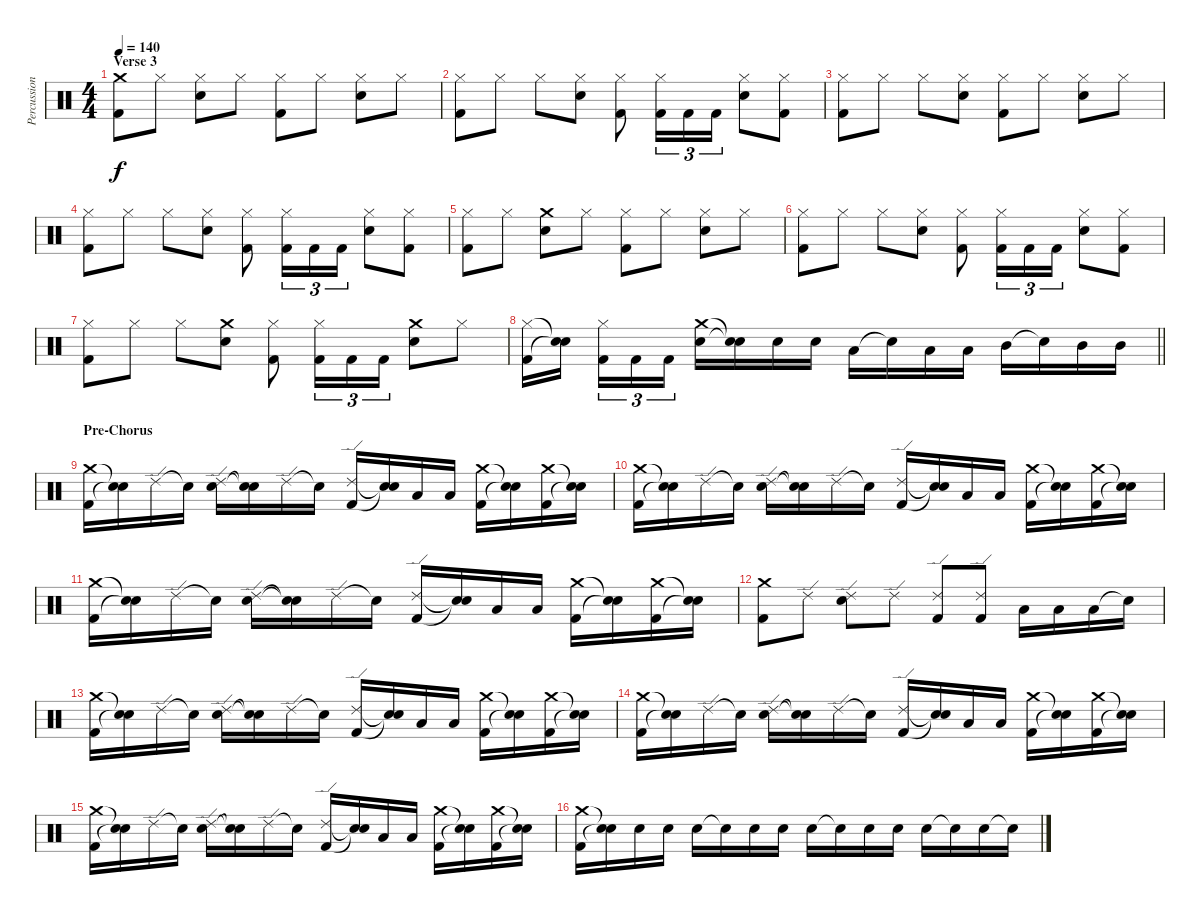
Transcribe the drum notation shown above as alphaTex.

\track ("Percussion" "Percussion") {instrument percussion}
\staff {score}
\articulation defaults
\ts (4 4)
\section ("" "Verse 3")
\tempo 140
\clef neutral
\ks c
("Crash medium (hit)" "Kick (hit) 2").8{dy f} "Hi-Hat (closed)".8 ("Hi-Hat (closed)" "Snare (hit) 2").8 "Hi-Hat (closed)".8 ("Hi-Hat (closed)" "Kick (hit) 2").8 "Hi-Hat (closed)".8 ("Hi-Hat (closed)" "Snare (hit) 2").8 "Hi-Hat (closed)".8 |
("Hi-Hat (closed)" "Kick (hit) 2").8 "Hi-Hat (closed)".8 "Hi-Hat (closed)".8 ("Hi-Hat (closed)" "Snare (hit) 2").8 ("Hi-Hat (closed)" "Kick (hit) 2").8 ("Hi-Hat (closed)" "Kick (hit) 2").16{tu (3 2)} "Kick (hit) 2".16{tu (3 2)} "Kick (hit) 2".16{tu (3 2)} ("Hi-Hat (closed)" "Snare (hit) 2").8 ("Hi-Hat (closed)" "Kick (hit) 2").8 |
("Hi-Hat (closed)" "Kick (hit) 2").8 "Hi-Hat (closed)".8 "Hi-Hat (closed)".8 ("Hi-Hat (closed)" "Snare (hit) 2").8 ("Hi-Hat (closed)" "Kick (hit) 2").8 "Hi-Hat (closed)".8 ("Hi-Hat (closed)" "Snare (hit) 2").8 "Hi-Hat (closed)".8 |
("Hi-Hat (closed)" "Kick (hit) 2").8 "Hi-Hat (closed)".8 "Hi-Hat (closed)".8 ("Hi-Hat (closed)" "Snare (hit) 2").8 ("Hi-Hat (closed)" "Kick (hit) 2").8 ("Hi-Hat (closed)" "Kick (hit) 2").16{tu (3 2)} "Kick (hit) 2".16{tu (3 2)} "Kick (hit) 2".16{tu (3 2)} ("Hi-Hat (closed)" "Snare (hit) 2").8 ("Hi-Hat (closed)" "Kick (hit) 2").8 |
("Hi-Hat (closed)" "Kick (hit) 2").8 "Hi-Hat (closed)".8 ("Crash medium (hit)" "Snare (hit) 2").8 "Hi-Hat (closed)".8 ("Hi-Hat (closed)" "Kick (hit) 2").8 "Hi-Hat (closed)".8 ("Hi-Hat (closed)" "Snare (hit) 2").8 "Hi-Hat (closed)".8 |
("Hi-Hat (closed)" "Kick (hit) 2").8 "Hi-Hat (closed)".8 "Hi-Hat (closed)".8 ("Hi-Hat (closed)" "Snare (hit) 2").8 ("Hi-Hat (closed)" "Kick (hit) 2").8 ("Hi-Hat (closed)" "Kick (hit) 2").16{tu (3 2)} "Kick (hit) 2".16{tu (3 2)} "Kick (hit) 2".16{tu (3 2)} ("Hi-Hat (closed)" "Snare (hit) 2").8 ("Hi-Hat (closed)" "Kick (hit) 2").8 |
("Hi-Hat (closed)" "Kick (hit) 2").8 "Hi-Hat (closed)".8 "Hi-Hat (closed)".8 ("Crash medium (hit)" "Snare (hit) 2").8 ("Hi-Hat (closed)" "Kick (hit) 2").8 ("Hi-Hat (closed)" "Kick (hit) 2").16{tu (3 2)} "Kick (hit) 2".16{tu (3 2)} "Kick (hit) 2".16{tu (3 2)} ("Crash medium (hit)" "Snare (hit) 2").8 "Hi-Hat (closed)".8 |
\barLineRight lightlight
("Hi-Hat (closed)" "Kick (hit) 2").16 ("Snare (hit)"{t} "Snare (hit)"{t}).16{beam splitsecondary} ("Hi-Hat (closed)" "Kick (hit) 2").16{tu (3 2)} "Kick (hit) 2".16{tu (3 2)} "Kick (hit) 2".16{tu (3 2)} ("Crash medium (hit)" "Snare (hit) 2").16 ("Snare (hit)"{t} "Snare (hit)"{t}).16 "Snare (hit) 2".16 "Snare (hit) 2".16 "Low Tom (hit)".16 "Snare (hit)"{t}.16 "Low Tom (hit)".16 "Low Tom (hit)".16 "Mid Tom (hit)".16 "Snare (hit)"{t}.16 "Mid Tom (hit)".16 "Mid Tom (hit)".16 |
\section ("" "Pre-Chorus")
("Crash medium (hit)" "Kick (hit) 2").16 ("Snare (hit)"{t} "Snare (hit)"{t}).16 "Ride (edge) 2".16 "Snare (hit)"{t}.16 ("Ride (edge) 2" "Snare (hit) 2").16 ("Snare (hit)"{t} "Snare (hit)"{t}).16 "Ride (edge) 2".16 "Snare (hit)"{t}.16 ("Ride (edge) 2" "Kick (hit) 2").16 ("Snare (hit)"{t} "Snare (hit)"{t}).16 "Low Tom (hit)".16 "Low Tom (hit)".16 ("Crash medium (hit)" "Kick (hit) 2").16 ("Snare (hit)"{t} "Snare (hit)"{t}).16 ("Crash medium (hit)" "Kick (hit) 2").16 ("Snare (hit)"{t} "Snare (hit)"{t}).16 |
("Crash medium (hit)" "Kick (hit) 2").16 ("Snare (hit)"{t} "Snare (hit)"{t}).16 "Ride (edge) 2".16 "Snare (hit)"{t}.16 ("Ride (edge) 2" "Snare (hit) 2").16 ("Snare (hit)"{t} "Snare (hit)"{t}).16 "Ride (edge) 2".16 "Snare (hit)"{t}.16 ("Ride (edge) 2" "Kick (hit) 2").16 ("Snare (hit)"{t} "Snare (hit)"{t}).16 "Low Tom (hit)".16 "Low Tom (hit)".16 ("Crash medium (hit)" "Kick (hit) 2").16 ("Snare (hit)"{t} "Snare (hit)"{t}).16 ("Crash medium (hit)" "Kick (hit) 2").16 ("Snare (hit)"{t} "Snare (hit)"{t}).16 |
("Crash medium (hit)" "Kick (hit) 2").16 ("Snare (hit)"{t} "Snare (hit)"{t}).16 "Ride (edge) 2".16 "Snare (hit)"{t}.16 ("Ride (edge) 2" "Snare (hit) 2").16 ("Snare (hit)"{t} "Snare (hit)"{t}).16 "Ride (edge) 2".16 "Snare (hit)"{t}.16 ("Ride (edge) 2" "Kick (hit) 2").16 ("Snare (hit)"{t} "Snare (hit)"{t}).16 "Low Tom (hit)".16 "Low Tom (hit)".16 ("Crash medium (hit)" "Kick (hit) 2").16 ("Snare (hit)"{t} "Snare (hit)"{t}).16 ("Crash medium (hit)" "Kick (hit) 2").16 ("Snare (hit)"{t} "Snare (hit)"{t}).16 |
("Crash medium (hit)" "Kick (hit) 2").8 "Ride (edge) 2".8 ("Ride (edge) 2" "Snare (hit) 2").8 "Ride (edge) 2".8 ("Ride (edge) 2" "Kick (hit) 2").8 ("Ride (edge) 2" "Kick (hit) 2").8 "Low Tom (hit)".16 "Low Tom (hit)".16 "Low Tom (hit)".16 "Snare (hit)"{t}.16 |
("Crash medium (hit)" "Kick (hit) 2").16 ("Snare (hit)"{t} "Snare (hit)"{t}).16 "Ride (edge) 2".16 "Snare (hit)"{t}.16 ("Ride (edge) 2" "Snare (hit) 2").16 ("Snare (hit)"{t} "Snare (hit)"{t}).16 "Ride (edge) 2".16 "Snare (hit)"{t}.16 ("Ride (edge) 2" "Kick (hit) 2").16 ("Snare (hit)"{t} "Snare (hit)"{t}).16 "Low Tom (hit)".16 "Low Tom (hit)".16 ("Crash medium (hit)" "Kick (hit) 2").16 ("Snare (hit)"{t} "Snare (hit)"{t}).16 ("Crash medium (hit)" "Kick (hit) 2").16 ("Snare (hit)"{t} "Snare (hit)"{t}).16 |
("Crash medium (hit)" "Kick (hit) 2").16 ("Snare (hit)"{t} "Snare (hit)"{t}).16 "Ride (edge) 2".16 "Snare (hit)"{t}.16 ("Ride (edge) 2" "Snare (hit) 2").16 ("Snare (hit)"{t} "Snare (hit)"{t}).16 "Ride (edge) 2".16 "Snare (hit)"{t}.16 ("Ride (edge) 2" "Kick (hit) 2").16 ("Snare (hit)"{t} "Snare (hit)"{t}).16 "Low Tom (hit)".16 "Low Tom (hit)".16 ("Crash medium (hit)" "Kick (hit) 2").16 ("Snare (hit)"{t} "Snare (hit)"{t}).16 ("Crash medium (hit)" "Kick (hit) 2").16 ("Snare (hit)"{t} "Snare (hit)"{t}).16 |
("Crash medium (hit)" "Kick (hit) 2").16 ("Snare (hit)"{t} "Snare (hit)"{t}).16 "Ride (edge) 2".16 "Snare (hit)"{t}.16 ("Ride (edge) 2" "Snare (hit) 2").16 ("Snare (hit)"{t} "Snare (hit)"{t}).16 "Ride (edge) 2".16 "Snare (hit)"{t}.16 ("Ride (edge) 2" "Kick (hit) 2").16 ("Snare (hit)"{t} "Snare (hit)"{t}).16 "Low Tom (hit)".16 "Low Tom (hit)".16 ("Crash medium (hit)" "Kick (hit) 2").16 ("Snare (hit)"{t} "Snare (hit)"{t}).16 ("Crash medium (hit)" "Kick (hit) 2").16 ("Snare (hit)"{t} "Snare (hit)"{t}).16 |
("Crash medium (hit)" "Kick (hit) 2").16 ("Snare (hit)"{t} "Snare (hit)"{t}).16 "Snare (hit) 2".16 "Snare (hit) 2".16 "Snare (hit) 2".16 "Snare (hit)"{t}.16 "Snare (hit) 2".16 "Snare (hit) 2".16 "Snare (hit) 2".16 "Snare (hit)"{t}.16 "Snare (hit) 2".16 "Snare (hit) 2".16 "Snare (hit) 2".16 "Snare (hit)"{t}.16 "Snare (hit) 2".16 "Snare (hit)"{t}.16
